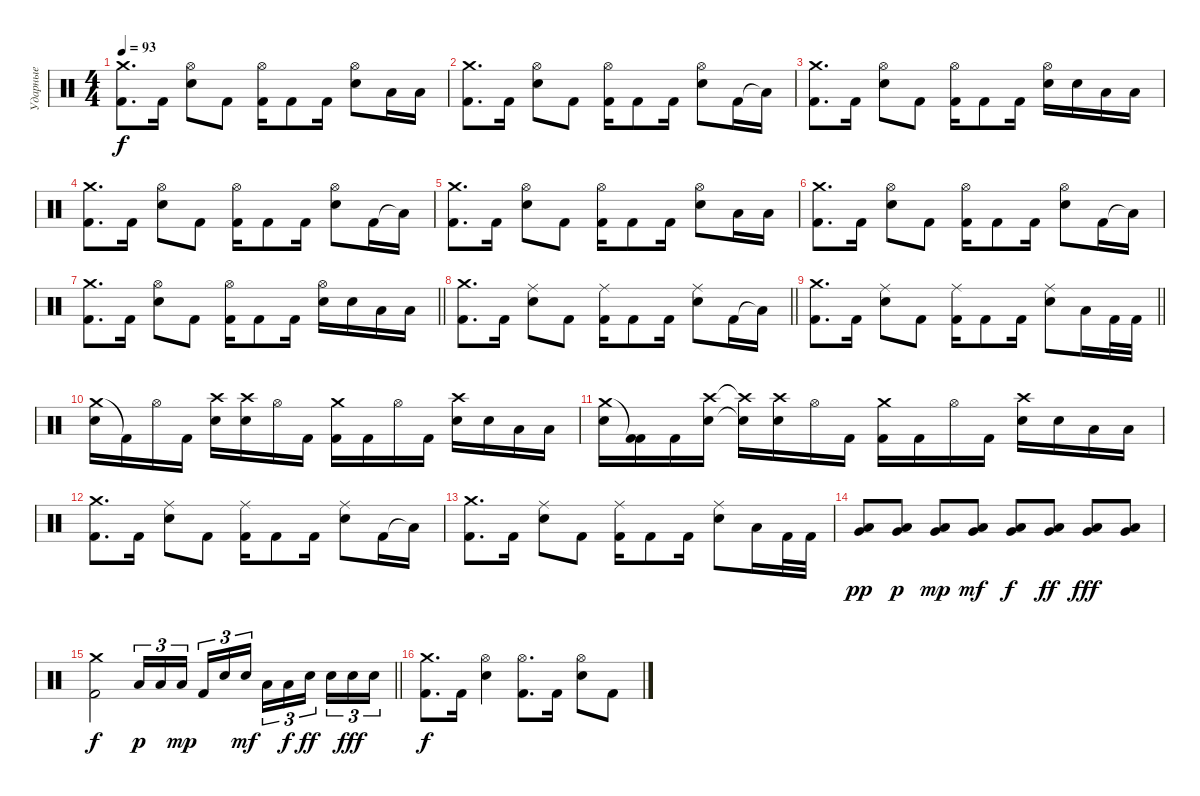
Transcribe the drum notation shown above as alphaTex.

\track ("Ударные" "Ударные") {instrument percussion}
\staff {score}
\articulation defaults
\ts (4 4)
\tempo 93
\clef neutral
\ks c
("Crash medium (hit)" "Kick (hit) 2").8{d dy f} "Kick (hit) 2".16 ("Hi-Hat (open)" "Snare (hit) 2").8 "Kick (hit) 2".8 ("Hi-Hat (open)" "Kick (hit) 2").16 "Kick (hit) 2".8 "Kick (hit) 2".16 ("Hi-Hat (open)" "Snare (hit) 2").8 "Low Tom (hit)".16 "Low Tom (hit)".16 |
("Crash medium (hit)" "Kick (hit) 2").8{d} "Kick (hit) 2".16 ("Hi-Hat (open)" "Snare (hit) 2").8 "Kick (hit) 2".8 ("Hi-Hat (open)" "Kick (hit) 2").16 "Kick (hit) 2".8 "Kick (hit) 2".16 ("Hi-Hat (open)" "Snare (hit) 2").8 "Kick (hit) 2".16 "Low Tom (hit)"{t}.16 |
("Crash medium (hit)" "Kick (hit) 2").8{d} "Kick (hit) 2".16 ("Hi-Hat (open)" "Snare (hit) 2").8 "Kick (hit) 2".8 ("Hi-Hat (open)" "Kick (hit) 2").16 "Kick (hit) 2".8 "Kick (hit) 2".16 ("Hi-Hat (open)" "Snare (hit) 2").16 "Snare (hit) 2".16 "Low Tom (hit)".16 "Low Tom (hit)".16 |
("Crash medium (hit)" "Kick (hit) 2").8{d} "Kick (hit) 2".16 ("Hi-Hat (open)" "Snare (hit) 2").8 "Kick (hit) 2".8 ("Hi-Hat (open)" "Kick (hit) 2").16 "Kick (hit) 2".8 "Kick (hit) 2".16 ("Hi-Hat (open)" "Snare (hit) 2").8 "Kick (hit) 2".16 "Low Tom (hit)"{t}.16 |
("Crash medium (hit)" "Kick (hit) 2").8{d} "Kick (hit) 2".16 ("Hi-Hat (open)" "Snare (hit) 2").8 "Kick (hit) 2".8 ("Hi-Hat (open)" "Kick (hit) 2").16 "Kick (hit) 2".8 "Kick (hit) 2".16 ("Hi-Hat (open)" "Snare (hit) 2").8 "Low Tom (hit)".16 "Low Tom (hit)".16 |
("Crash medium (hit)" "Kick (hit) 2").8{d} "Kick (hit) 2".16 ("Hi-Hat (open)" "Snare (hit) 2").8 "Kick (hit) 2".8 ("Hi-Hat (open)" "Kick (hit) 2").16 "Kick (hit) 2".8 "Kick (hit) 2".16 ("Hi-Hat (open)" "Snare (hit) 2").8 "Kick (hit) 2".16 "Low Tom (hit)"{t}.16 |
\barLineRight lightlight
("Crash medium (hit)" "Kick (hit) 2").8{d} "Kick (hit) 2".16 ("Hi-Hat (open)" "Snare (hit) 2").8 "Kick (hit) 2".8 ("Hi-Hat (open)" "Kick (hit) 2").16 "Kick (hit) 2".8 "Kick (hit) 2".16 ("Hi-Hat (open)" "Snare (hit) 2").16 "Snare (hit) 2".16 "Low Tom (hit)".16 "Low Tom (hit)".16 |
\barLineRight lightlight
("Crash medium (hit)" "Kick (hit) 2").8{d} "Kick (hit) 2".16 ("Ride (middle)" "Snare (hit) 2").8 "Kick (hit) 2".8 ("Ride (middle)" "Kick (hit) 2").16 "Kick (hit) 2".8 "Kick (hit) 2".16 ("Ride (middle)" "Snare (hit) 2").8 "Kick (hit) 2".16 "Low Tom (hit)"{t}.16 |
\barLineRight lightlight
("Crash medium (hit)" "Kick (hit) 2").8{d} "Kick (hit) 2".16 ("Ride (middle)" "Snare (hit) 2").8 "Kick (hit) 2".8 ("Ride (middle)" "Kick (hit) 2").16 "Kick (hit) 2".8 "Kick (hit) 2".16 ("Ride (middle)" "Snare (hit) 2").8 "Low Tom (hit)".16 "Kick (hit) 2".32 "Kick (hit) 2".32 |
("Crash medium (hit)" "Snare (hit) 2").16 "Kick (hit) 2"{t}.16 "Hi-Hat (open)".16 "Kick (hit) 2".16 ("Crash high (hit)" "Snare (hit) 2").16 ("Crash high (hit)" "Snare (hit) 2").16 "Hi-Hat (open)".16 "Kick (hit) 2".16 ("Crash medium (hit)" "Kick (hit) 2").16 "Kick (hit) 2".16 "Hi-Hat (open)".16 "Kick (hit) 2".16 ("Crash high (hit)" "Snare (hit) 2").16 "Snare (hit) 2".16 "Low Tom (hit)".16 "Low Tom (hit)".16 |
("Crash medium (hit)" "Snare (hit) 2").16 ("Kick (hit) 2"{t} "Kick (hit) 2").16 "Kick (hit) 2".16 ("Crash high (hit)" "Snare (hit) 2").16 ("Crash high (hit)"{t} "Snare (hit) 2"{t}).16 ("Crash high (hit)" "Snare (hit) 2").16 "Hi-Hat (open)".16 "Kick (hit) 2".16 ("Crash medium (hit)" "Kick (hit) 2").16 "Kick (hit) 2".16 "Hi-Hat (open)".16 "Kick (hit) 2".16 ("Crash high (hit)" "Snare (hit) 2").16 "Snare (hit) 2".16 "Low Tom (hit)".16 "Low Tom (hit)".16 |
("Crash medium (hit)" "Kick (hit) 2").8{d} "Kick (hit) 2".16 ("Ride (middle)" "Snare (hit) 2").8 "Kick (hit) 2".8 ("Ride (middle)" "Kick (hit) 2").16 "Kick (hit) 2".8 "Kick (hit) 2".16 ("Ride (middle)" "Snare (hit) 2").8 "Kick (hit) 2".16 "Low Tom (hit)"{t}.16 |
("Crash medium (hit)" "Kick (hit) 2").8{d} "Kick (hit) 2".16 ("Ride (middle)" "Snare (hit) 2").8 "Kick (hit) 2".8 ("Ride (middle)" "Kick (hit) 2").16 "Kick (hit) 2".8 "Kick (hit) 2".16 ("Ride (middle)" "Snare (hit) 2").8 "Low Tom (hit)".16 "Kick (hit) 2".32 "Kick (hit) 2".32 |
("Low Tom (hit)" "Very Low Tom (hit)").8{dy pp} ("Low Tom (hit)" "Very Low Tom (hit)").8{dy p} ("Low Tom (hit)" "Very Low Tom (hit)").8{dy mp} ("Low Tom (hit)" "Very Low Tom (hit)").8{dy mf} ("Low Tom (hit)" "Very Low Tom (hit)").8{dy f} ("Low Tom (hit)" "Very Low Tom (hit)").8{dy ff} ("Low Tom (hit)" "Very Low Tom (hit)").8{dy fff} ("Low Tom (hit)" "Very Low Tom (hit)").8 |
\barLineRight lightlight
("Crash medium (hit)" "Kick (hit) 2").2{dy f} "Low Tom (hit)".16{tu (3 2) dy p} "Low Tom (hit)".16{tu (3 2)} "Low Tom (hit)".16{tu (3 2) dy mp beam splitsecondary} "Kick (hit) 2".16{tu (3 2)} "Snare (hit) 2".16{tu (3 2)} "Snare (hit) 2".16{tu (3 2) dy mf} "Low Tom (hit)".16{tu (3 2)} "Low Tom (hit)".16{tu (3 2) dy f} "Snare (hit) 2".16{tu (3 2) dy ff beam splitsecondary} "Snare (hit) 2".16{tu (3 2)} "Snare (hit) 2".16{tu (3 2) dy fff} "Snare (hit) 2".16{tu (3 2)} |
("Kick (hit) 2" "Crash medium (hit)").8{d dy f} "Kick (hit) 2".16 ("Hi-Hat (open)" "Snare (hit) 2").4 ("Hi-Hat (open)" "Kick (hit) 2").8{d} "Kick (hit) 2".16 ("Hi-Hat (open)" "Snare (hit) 2").8 "Kick (hit) 2".8
